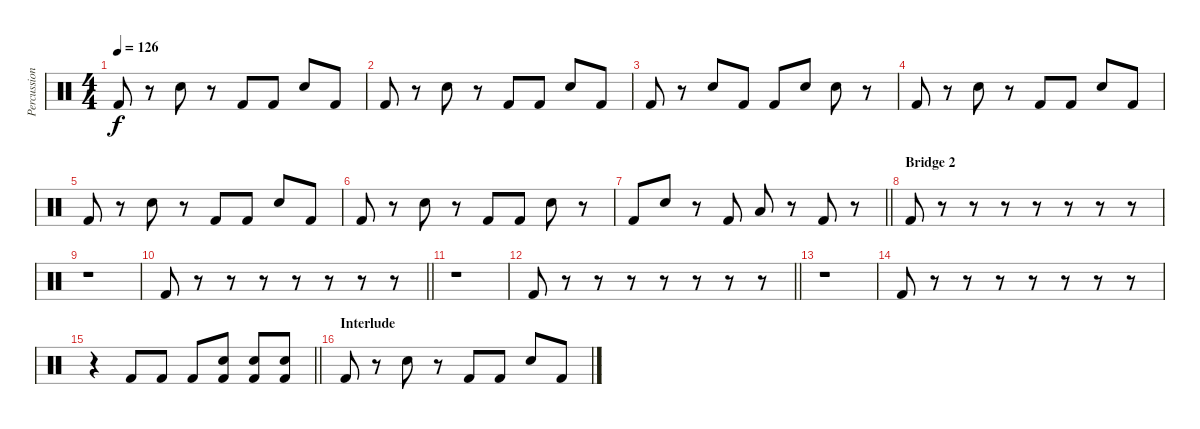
\track ("Percussion" "Percussion") {instrument percussion}
\staff {score}
\articulation defaults
\ts (4 4)
\tempo 126
\clef neutral
\ks c "Kick (hit) 2".8{dy f}
r.8 "Snare (hit) 2".8 r.8 "Kick (hit) 2".8 "Kick (hit) 2".8 "Snare (hit) 2".8 "Kick (hit) 2".8 |
"Kick (hit) 2".8 r.8 "Snare (hit) 2".8 r.8 "Kick (hit) 2".8 "Kick (hit) 2".8 "Snare (hit) 2".8 "Kick (hit) 2".8 |
"Kick (hit) 2".8 r.8 "Snare (hit) 2".8 "Kick (hit) 2".8 "Kick (hit) 2".8 "Snare (hit) 2".8 "Snare (hit) 2".8 r.8 |
"Kick (hit) 2".8 r.8 "Snare (hit) 2".8 r.8 "Kick (hit) 2".8 "Kick (hit) 2".8 "Snare (hit) 2".8 "Kick (hit) 2".8 |
"Kick (hit) 2".8 r.8 "Snare (hit) 2".8 r.8 "Kick (hit) 2".8 "Kick (hit) 2".8 "Snare (hit) 2".8 "Kick (hit) 2".8 |
"Kick (hit) 2".8 r.8 "Snare (hit) 2".8 r.8 "Kick (hit) 2".8 "Kick (hit) 2".8 "Snare (hit) 2".8 r.8 |
\barLineRight lightlight "Kick (hit) 2".8 "Snare (hit) 2".8
r.8 "Kick (hit) 2".8 "Low Tom (hit)".8 r.8 "Kick (hit) 2".8 r.8 |
\section ("" "Bridge 2")
"Kick (hit) 2".8 r.8 r.8 r.8 r.8 r.8 r.8 r.8 |
r.1 |
\barLineRight lightlight "Kick (hit) 2".8
r.8 r.8 r.8 r.8 r.8 r.8 r.8 |
r.1 |
\barLineRight lightlight "Kick (hit) 2".8
r.8 r.8 r.8 r.8 r.8 r.8 r.8 |
r.1 |
"Kick (hit) 2".8 r.8 r.8 r.8 r.8 r.8 r.8 r.8 |
\barLineRight lightlight
r.4 "Kick (hit) 2".8 "Kick (hit) 2".8 "Kick (hit) 2".8 ("Snare (hit) 2" "Kick (hit) 2").8 ("Snare (hit) 2" "Kick (hit) 2").8 ("Snare (hit) 2" "Kick (hit) 2").8 |
\section ("" "Interlude")
"Kick (hit) 2".8 r.8 "Snare (hit) 2".8 r.8 "Kick (hit) 2".8 "Kick (hit) 2".8 "Snare (hit) 2".8 "Kick (hit) 2".8
